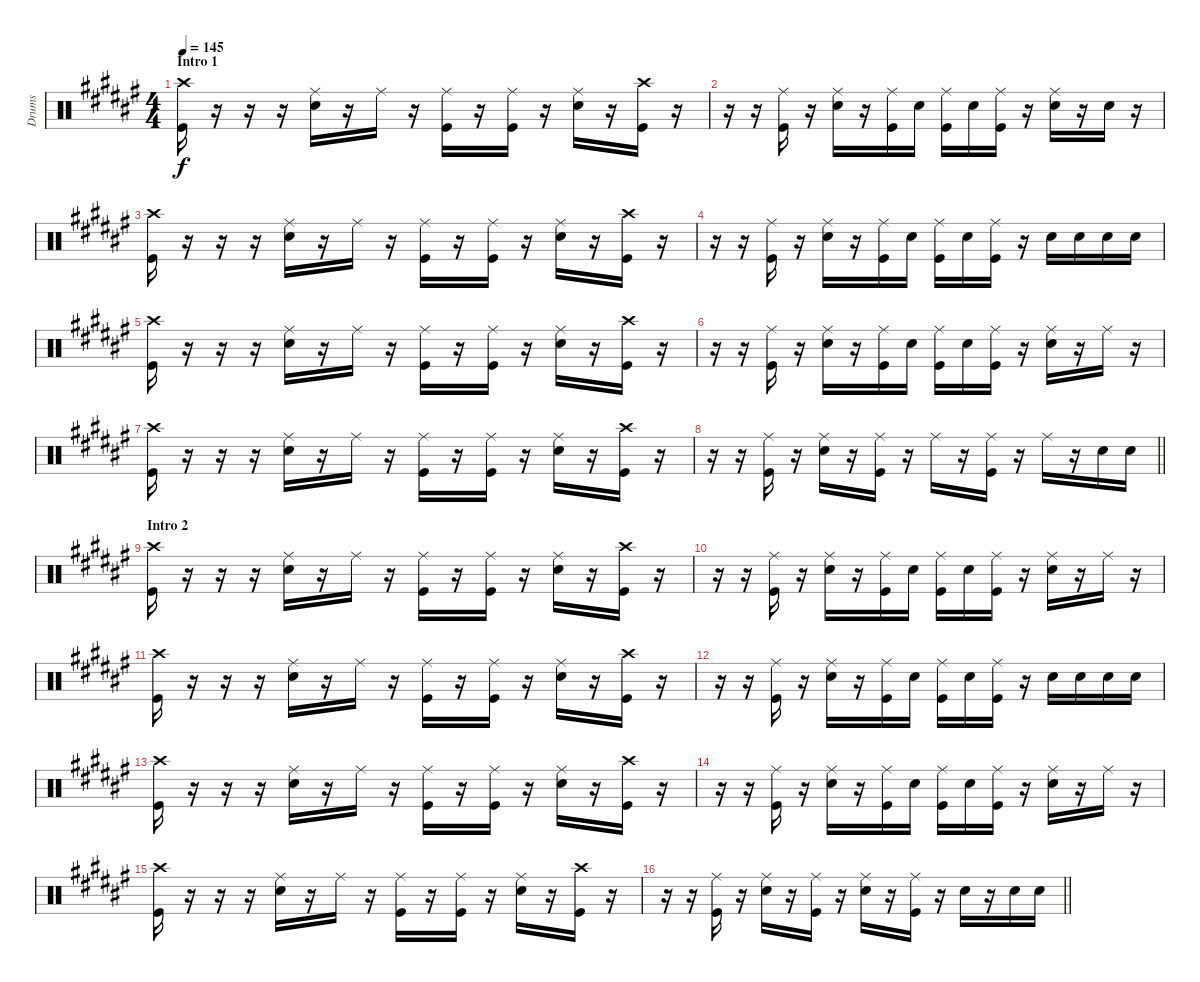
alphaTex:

\track ("Drums" "Drums") {instrument percussion}
\staff {score}
\articulation defaults
\ts (4 4)
\section ("" "Intro 1")
\tempo 145
\clef neutral
\ks f#
("Kick (hit)" "Crash high (hit)").16{dy f} r.16 r.16 r.16 ("Snare (hit) 2" "Ride (middle)").16 r.16 "Ride (middle)".16 r.16 ("Kick (hit)" "Ride (middle)").16 r.16 ("Kick (hit)" "Ride (middle)").16 r.16 ("Snare (hit) 2" "Ride (middle)").16 r.16 ("Kick (hit)" "Crash high (hit)").16 r.16 |
r.16 r.16 ("Kick (hit)" "Ride (middle)").16 r.16 ("Snare (hit) 2" "Ride (middle)").16 r.16 ("Kick (hit)" "Ride (middle)").16 "Snare (hit) 2".16 ("Kick (hit)" "Ride (middle)").16 "Snare (hit) 2".16 ("Kick (hit)" "Ride (middle)").16 r.16 ("Snare (hit) 2" "Ride (middle)").16 r.16 "Snare (hit)".16 r.16 |
("Kick (hit)" "Crash high (hit)").16 r.16 r.16 r.16 ("Snare (hit) 2" "Ride (middle)").16 r.16 "Ride (middle)".16 r.16 ("Kick (hit)" "Ride (middle)").16 r.16 ("Kick (hit)" "Ride (middle)").16 r.16 ("Snare (hit) 2" "Ride (middle)").16 r.16 ("Kick (hit)" "Crash high (hit)").16 r.16 |
r.16 r.16 ("Kick (hit)" "Ride (middle)").16 r.16 ("Snare (hit) 2" "Ride (middle)").16 r.16 ("Kick (hit)" "Ride (middle)").16 "Snare (hit) 2".16 ("Kick (hit)" "Ride (middle)").16 "Snare (hit) 2".16 ("Kick (hit)" "Ride (middle)").16 r.16 "Snare (hit) 2".16 "Snare (hit) 2".16 "Snare (hit) 2".16 "Snare (hit) 2".16 |
("Kick (hit)" "Crash high (hit)").16 r.16 r.16 r.16 ("Snare (hit) 2" "Ride (middle)").16 r.16 "Ride (middle)".16 r.16 ("Kick (hit)" "Ride (middle)").16 r.16 ("Kick (hit)" "Ride (middle)").16 r.16 ("Snare (hit) 2" "Ride (middle)").16 r.16 ("Kick (hit)" "Crash high (hit)").16 r.16 |
r.16 r.16 ("Kick (hit)" "Ride (middle)").16 r.16 ("Snare (hit) 2" "Ride (middle)").16 r.16 ("Kick (hit)" "Ride (middle)").16 "Snare (hit) 2".16 ("Kick (hit)" "Ride (middle)").16 "Snare (hit) 2".16 ("Kick (hit)" "Ride (middle)").16 r.16 ("Snare (hit) 2" "Ride (middle)").16 r.16 "Ride (middle)".16 r.16 |
("Kick (hit)" "Crash high (hit)").16 r.16 r.16 r.16 ("Snare (hit) 2" "Ride (middle)").16 r.16 "Ride (middle)".16 r.16 ("Kick (hit)" "Ride (middle)").16 r.16 ("Kick (hit)" "Ride (middle)").16 r.16 ("Snare (hit) 2" "Ride (middle)").16 r.16 ("Kick (hit)" "Crash high (hit)").16 r.16 |
\barLineRight lightlight
r.16 r.16 ("Kick (hit)" "Ride (middle)").16 r.16 ("Snare (hit) 2" "Ride (middle)").16 r.16 ("Kick (hit)" "Ride (middle)").16 r.16 "Ride (middle)".16 r.16 ("Kick (hit)" "Ride (middle)").16 r.16 "Ride (middle)".16 r.16 "Snare (hit) 2".16 "Snare (hit) 2".16 |
\section ("" "Intro 2")
("Kick (hit)" "Crash high (hit)").16 r.16 r.16 r.16 ("Snare (hit) 2" "Ride (middle)").16 r.16 "Ride (middle)".16 r.16 ("Kick (hit)" "Ride (middle)").16 r.16 ("Kick (hit)" "Ride (middle)").16 r.16 ("Snare (hit) 2" "Ride (middle)").16 r.16 ("Kick (hit)" "Crash high (hit)").16 r.16 |
r.16 r.16 ("Kick (hit)" "Ride (middle)").16 r.16 ("Snare (hit) 2" "Ride (middle)").16 r.16 ("Kick (hit)" "Ride (middle)").16 "Snare (hit) 2".16 ("Kick (hit)" "Ride (middle)").16 "Snare (hit) 2".16 ("Kick (hit)" "Ride (middle)").16 r.16 ("Snare (hit) 2" "Ride (middle)").16 r.16 "Ride (middle)".16 r.16 |
("Kick (hit)" "Crash high (hit)").16 r.16 r.16 r.16 ("Snare (hit) 2" "Ride (middle)").16 r.16 "Ride (middle)".16 r.16 ("Kick (hit)" "Ride (middle)").16 r.16 ("Kick (hit)" "Ride (middle)").16 r.16 ("Snare (hit) 2" "Ride (middle)").16 r.16 ("Kick (hit)" "Crash high (hit)").16 r.16 |
r.16 r.16 ("Kick (hit)" "Ride (middle)").16 r.16 ("Snare (hit) 2" "Ride (middle)").16 r.16 ("Kick (hit)" "Ride (middle)").16 "Snare (hit) 2".16 ("Kick (hit)" "Ride (middle)").16 "Snare (hit) 2".16 ("Kick (hit)" "Ride (middle)").16 r.16 "Snare (hit) 2".16 "Snare (hit) 2".16 "Snare (hit) 2".16 "Snare (hit) 2".16 |
("Kick (hit)" "Crash high (hit)").16 r.16 r.16 r.16 ("Snare (hit) 2" "Ride (middle)").16 r.16 "Ride (middle)".16 r.16 ("Kick (hit)" "Ride (middle)").16 r.16 ("Kick (hit)" "Ride (middle)").16 r.16 ("Snare (hit) 2" "Ride (middle)").16 r.16 ("Kick (hit)" "Crash high (hit)").16 r.16 |
r.16 r.16 ("Kick (hit)" "Ride (middle)").16 r.16 ("Snare (hit) 2" "Ride (middle)").16 r.16 ("Kick (hit)" "Ride (middle)").16 "Snare (hit) 2".16 ("Kick (hit)" "Ride (middle)").16 "Snare (hit) 2".16 ("Kick (hit)" "Ride (middle)").16 r.16 ("Snare (hit) 2" "Ride (middle)").16 r.16 "Ride (middle)".16 r.16 |
("Kick (hit)" "Crash high (hit)").16 r.16 r.16 r.16 ("Snare (hit) 2" "Ride (middle)").16 r.16 "Ride (middle)".16 r.16 ("Kick (hit)" "Ride (middle)").16 r.16 ("Kick (hit)" "Ride (middle)").16 r.16 ("Snare (hit) 2" "Ride (middle)").16 r.16 ("Kick (hit)" "Crash high (hit)").16 r.16 |
\barLineRight lightlight
r.16 r.16 ("Kick (hit)" "Ride (middle)").16 r.16 ("Snare (hit) 2" "Ride (middle)").16 r.16 ("Kick (hit)" "Ride (middle)").16 r.16 ("Snare (hit) 2" "Ride (middle)").16 r.16 ("Kick (hit)" "Ride (middle)").16 r.16 "Snare (hit) 2".16 r.16 "Snare (hit) 2".16 "Snare (hit) 2".16
